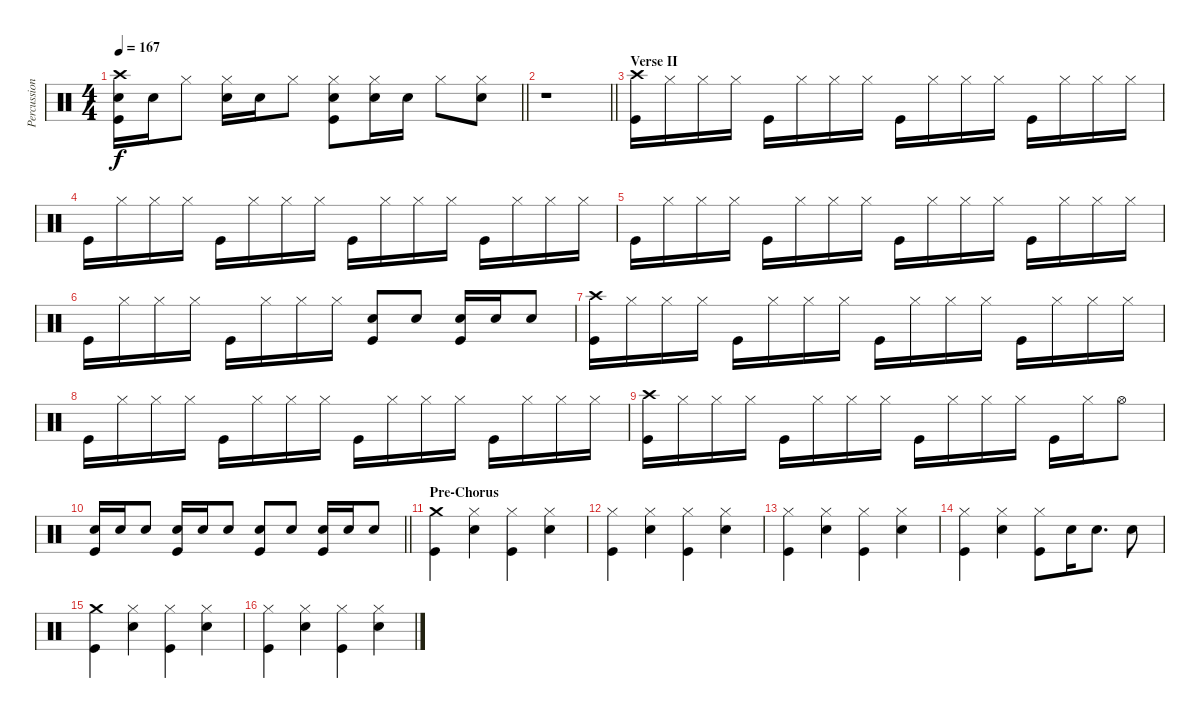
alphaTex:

\track ("Percussion" "Percussion") {instrument percussion}
\staff {score}
\articulation defaults
\ts (4 4)
\tempo 167
\clef neutral
\barLineRight lightlight
\ks c
("Crash high (hit)" "Electric Snare (hit)" "Kick (hit)").16{dy f} "Electric Snare (hit)".16 "Hi-Hat (closed)".8 ("Hi-Hat (closed)" "Electric Snare (hit)").16 "Electric Snare (hit)".16 "Hi-Hat (closed)".8 ("Hi-Hat (closed)" "Electric Snare (hit)" "Kick (hit)").8 ("Hi-Hat (closed)" "Electric Snare (hit)").16 "Electric Snare (hit)".16 "Hi-Hat (closed)".8 ("Hi-Hat (closed)" "Electric Snare (hit)").8 |
\barLineRight lightlight
r.1 |
\section ("" "Verse II")
("Crash high (hit)" "Kick (hit)").16 "Hi-Hat (closed)".16 "Hi-Hat (closed)".16 "Hi-Hat (closed)".16 "Kick (hit)".16 "Hi-Hat (closed)".16 "Hi-Hat (closed)".16 "Hi-Hat (closed)".16 "Kick (hit)".16 "Hi-Hat (closed)".16 "Hi-Hat (closed)".16 "Hi-Hat (closed)".16 "Kick (hit)".16 "Hi-Hat (closed)".16 "Hi-Hat (closed)".16 "Hi-Hat (closed)".16 |
"Kick (hit)".16 "Hi-Hat (closed)".16 "Hi-Hat (closed)".16 "Hi-Hat (closed)".16 "Kick (hit)".16 "Hi-Hat (closed)".16 "Hi-Hat (closed)".16 "Hi-Hat (closed)".16 "Kick (hit)".16 "Hi-Hat (closed)".16 "Hi-Hat (closed)".16 "Hi-Hat (closed)".16 "Kick (hit)".16 "Hi-Hat (closed)".16 "Hi-Hat (closed)".16 "Hi-Hat (closed)".16 |
"Kick (hit)".16 "Hi-Hat (closed)".16 "Hi-Hat (closed)".16 "Hi-Hat (closed)".16 "Kick (hit)".16 "Hi-Hat (closed)".16 "Hi-Hat (closed)".16 "Hi-Hat (closed)".16 "Kick (hit)".16 "Hi-Hat (closed)".16 "Hi-Hat (closed)".16 "Hi-Hat (closed)".16 "Kick (hit)".16 "Hi-Hat (closed)".16 "Hi-Hat (closed)".16 "Hi-Hat (closed)".16 |
"Kick (hit)".16 "Hi-Hat (closed)".16 "Hi-Hat (closed)".16 "Hi-Hat (closed)".16 "Kick (hit)".16 "Hi-Hat (closed)".16 "Hi-Hat (closed)".16 "Hi-Hat (closed)".16 ("Electric Snare (hit)" "Kick (hit)").8 "Electric Snare (hit)".8 ("Electric Snare (hit)" "Kick (hit)").16 "Electric Snare (hit)".16 "Electric Snare (hit)".8 |
("Crash high (hit)" "Kick (hit)").16 "Hi-Hat (closed)".16 "Hi-Hat (closed)".16 "Hi-Hat (closed)".16 "Kick (hit)".16 "Hi-Hat (closed)".16 "Hi-Hat (closed)".16 "Hi-Hat (closed)".16 "Kick (hit)".16 "Hi-Hat (closed)".16 "Hi-Hat (closed)".16 "Hi-Hat (closed)".16 "Kick (hit)".16 "Hi-Hat (closed)".16 "Hi-Hat (closed)".16 "Hi-Hat (closed)".16 |
"Kick (hit)".16 "Hi-Hat (closed)".16 "Hi-Hat (closed)".16 "Hi-Hat (closed)".16 "Kick (hit)".16 "Hi-Hat (closed)".16 "Hi-Hat (closed)".16 "Hi-Hat (closed)".16 "Kick (hit)".16 "Hi-Hat (closed)".16 "Hi-Hat (closed)".16 "Hi-Hat (closed)".16 "Kick (hit)".16 "Hi-Hat (closed)".16 "Hi-Hat (closed)".16 "Hi-Hat (closed)".16 |
("Crash high (hit)" "Kick (hit)").16 "Hi-Hat (closed)".16 "Hi-Hat (closed)".16 "Hi-Hat (closed)".16 "Kick (hit)".16 "Hi-Hat (closed)".16 "Hi-Hat (closed)".16 "Hi-Hat (closed)".16 "Kick (hit)".16 "Hi-Hat (closed)".16 "Hi-Hat (closed)".16 "Hi-Hat (closed)".16 "Kick (hit)".16 "Hi-Hat (closed)".16 "Hi-Hat (open)".8 |
\barLineRight lightlight
("Electric Snare (hit)" "Kick (hit)").16 "Electric Snare (hit)".16 "Electric Snare (hit)".8 ("Electric Snare (hit)" "Kick (hit)").16 "Electric Snare (hit)".16 "Electric Snare (hit)".8 ("Electric Snare (hit)" "Kick (hit)").8 "Electric Snare (hit)".8 ("Electric Snare (hit)" "Kick (hit)").16 "Electric Snare (hit)".16 "Electric Snare (hit)".8 |
\section ("" "Pre-Chorus")
("Crash medium (hit)" "Kick (hit)").4 ("Hi-Hat (closed)" "Electric Snare (hit)").4 ("Hi-Hat (closed)" "Kick (hit)").4 ("Hi-Hat (closed)" "Electric Snare (hit)").4 |
("Hi-Hat (closed)" "Kick (hit)").4 ("Hi-Hat (closed)" "Electric Snare (hit)").4 ("Hi-Hat (closed)" "Kick (hit)").4 ("Hi-Hat (closed)" "Electric Snare (hit)").4 |
("Hi-Hat (closed)" "Kick (hit)").4 ("Hi-Hat (closed)" "Electric Snare (hit)").4 ("Hi-Hat (closed)" "Kick (hit)").4 ("Hi-Hat (closed)" "Electric Snare (hit)").4 |
("Hi-Hat (closed)" "Kick (hit)").4 ("Hi-Hat (closed)" "Electric Snare (hit)").4 ("Hi-Hat (closed)" "Kick (hit)").8 "Electric Snare (hit)".16 "Electric Snare (hit)".8{d} "Electric Snare (hit)".8 |
("Crash medium (hit)" "Kick (hit)").4 ("Hi-Hat (closed)" "Electric Snare (hit)").4 ("Hi-Hat (closed)" "Kick (hit)").4 ("Hi-Hat (closed)" "Electric Snare (hit)").4 |
("Hi-Hat (closed)" "Kick (hit)").4 ("Hi-Hat (closed)" "Electric Snare (hit)").4 ("Hi-Hat (closed)" "Kick (hit)").4 ("Hi-Hat (closed)" "Electric Snare (hit)").4
